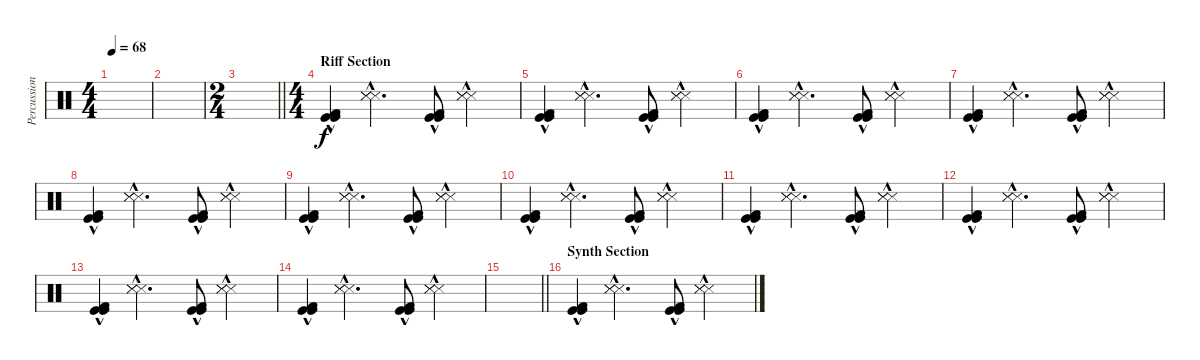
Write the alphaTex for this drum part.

\track ("Percussion (Drums)" "Percussion") {instrument percussion}
\staff {score}
\articulation defaults
\ts (4 4)
\tempo 68
\clef neutral
\ks c
|
|
\ts (2 4)
\barLineRight lightlight
|
\ts (4 4)
\section ("" "Riff Section")
("Kick (hit)"{hac} "Kick (hit) 2"{hac} "Kick (hit)"{hac}).4 ("Snare (side stick) 3"{hac} "Snare (side stick) 3"{hac} "Snare (side stick) 3"{hac}).4{d} ("Kick (hit)"{hac} "Kick (hit) 2"{hac} "Kick (hit)"{hac}).8 ("Snare (side stick) 3"{hac} "Snare (side stick) 3"{hac} "Snare (side stick) 3"{hac}).4 |
("Kick (hit)"{hac} "Kick (hit) 2"{hac} "Kick (hit)"{hac}).4 ("Snare (side stick) 3"{hac} "Snare (side stick) 3"{hac} "Snare (side stick) 3"{hac}).4{d} ("Kick (hit)"{hac} "Kick (hit) 2"{hac} "Kick (hit)"{hac}).8 ("Snare (side stick) 3"{hac} "Snare (side stick) 3"{hac} "Snare (side stick) 3"{hac}).4 |
("Kick (hit)"{hac} "Kick (hit) 2"{hac} "Kick (hit)"{hac}).4 ("Snare (side stick) 3"{hac} "Snare (side stick) 3"{hac} "Snare (side stick) 3"{hac}).4{d} ("Kick (hit)"{hac} "Kick (hit) 2"{hac} "Kick (hit)"{hac}).8 ("Snare (side stick) 3"{hac} "Snare (side stick) 3"{hac} "Snare (side stick) 3"{hac}).4 |
("Kick (hit)"{hac} "Kick (hit) 2"{hac} "Kick (hit)"{hac}).4 ("Snare (side stick) 3"{hac} "Snare (side stick) 3"{hac} "Snare (side stick) 3"{hac}).4{d} ("Kick (hit)"{hac} "Kick (hit) 2"{hac} "Kick (hit)"{hac}).8 ("Snare (side stick) 3"{hac} "Snare (side stick) 3"{hac} "Snare (side stick) 3"{hac}).4 |
("Kick (hit)"{hac} "Kick (hit) 2"{hac} "Kick (hit)"{hac}).4 ("Snare (side stick) 3"{hac} "Snare (side stick) 3"{hac} "Snare (side stick) 3"{hac}).4{d} ("Kick (hit)"{hac} "Kick (hit) 2"{hac} "Kick (hit)"{hac}).8 ("Snare (side stick) 3"{hac} "Snare (side stick) 3"{hac} "Snare (side stick) 3"{hac}).4 |
("Kick (hit)"{hac} "Kick (hit) 2"{hac} "Kick (hit)"{hac}).4 ("Snare (side stick) 3"{hac} "Snare (side stick) 3"{hac} "Snare (side stick) 3"{hac}).4{d} ("Kick (hit)"{hac} "Kick (hit) 2"{hac} "Kick (hit)"{hac}).8 ("Snare (side stick) 3"{hac} "Snare (side stick) 3"{hac} "Snare (side stick) 3"{hac}).4 |
("Kick (hit)"{hac} "Kick (hit) 2"{hac} "Kick (hit)"{hac}).4 ("Snare (side stick) 3"{hac} "Snare (side stick) 3"{hac} "Snare (side stick) 3"{hac}).4{d} ("Kick (hit)"{hac} "Kick (hit) 2"{hac} "Kick (hit)"{hac}).8 ("Snare (side stick) 3"{hac} "Snare (side stick) 3"{hac} "Snare (side stick) 3"{hac}).4 |
("Kick (hit)"{hac} "Kick (hit) 2"{hac} "Kick (hit)"{hac}).4 ("Snare (side stick) 3"{hac} "Snare (side stick) 3"{hac} "Snare (side stick) 3"{hac}).4{d} ("Kick (hit)"{hac} "Kick (hit) 2"{hac} "Kick (hit)"{hac}).8 ("Snare (side stick) 3"{hac} "Snare (side stick) 3"{hac} "Snare (side stick) 3"{hac}).4 |
("Kick (hit)"{hac} "Kick (hit) 2"{hac} "Kick (hit)"{hac}).4 ("Snare (side stick) 3"{hac} "Snare (side stick) 3"{hac} "Snare (side stick) 3"{hac}).4{d} ("Kick (hit)"{hac} "Kick (hit) 2"{hac} "Kick (hit)"{hac}).8 ("Snare (side stick) 3"{hac} "Snare (side stick) 3"{hac} "Snare (side stick) 3"{hac}).4 |
("Kick (hit)"{hac} "Kick (hit) 2"{hac} "Kick (hit)"{hac}).4 ("Snare (side stick) 3"{hac} "Snare (side stick) 3"{hac} "Snare (side stick) 3"{hac}).4{d} ("Kick (hit)"{hac} "Kick (hit) 2"{hac} "Kick (hit)"{hac}).8 ("Snare (side stick) 3"{hac} "Snare (side stick) 3"{hac} "Snare (side stick) 3"{hac}).4 |
("Kick (hit)"{hac} "Kick (hit) 2"{hac} "Kick (hit)"{hac}).4 ("Snare (side stick) 3"{hac} "Snare (side stick) 3"{hac} "Snare (side stick) 3"{hac}).4{d} ("Kick (hit)"{hac} "Kick (hit) 2"{hac} "Kick (hit)"{hac}).8 ("Snare (side stick) 3"{hac} "Snare (side stick) 3"{hac} "Snare (side stick) 3"{hac}).4 |
\barLineRight lightlight
|
\section ("" "Synth Section")
("Kick (hit)"{hac} "Kick (hit) 2"{hac} "Kick (hit)"{hac}).4 ("Snare (side stick) 3"{hac} "Snare (side stick) 3"{hac} "Snare (side stick) 3"{hac}).4{d} ("Kick (hit)"{hac} "Kick (hit) 2"{hac} "Kick (hit)"{hac}).8 ("Snare (side stick) 3"{hac} "Snare (side stick) 3"{hac} "Snare (side stick) 3"{hac}).4
